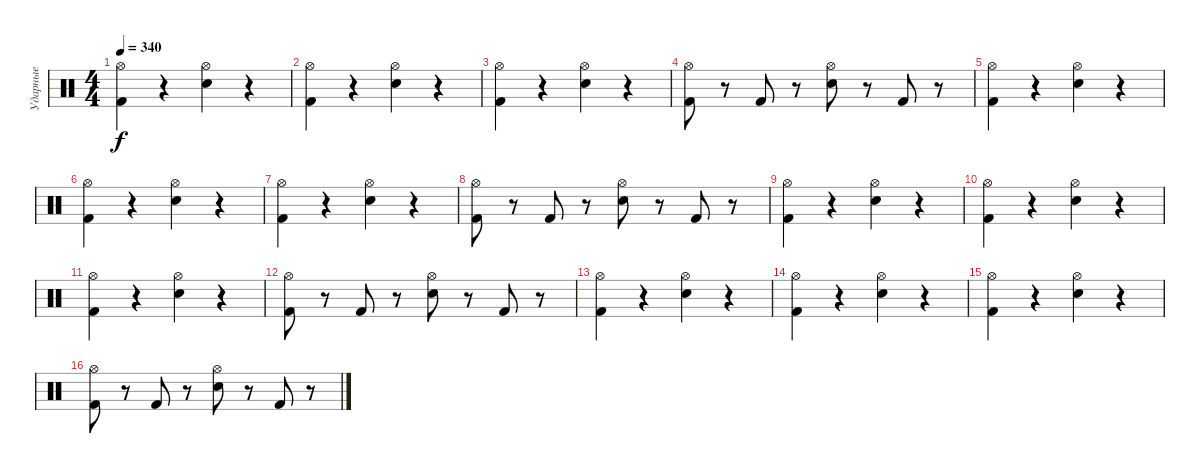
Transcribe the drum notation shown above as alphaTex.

\track ("Ударные" "Ударные") {instrument percussion}
\staff {score}
\articulation defaults
\ts (4 4)
\tempo 340
\clef neutral
\ks c
("Kick (hit) 2" "Hi-Hat (open)").4{dy f} r.4 ("Electric Snare (hit)" "Hi-Hat (open)").4 r.4 |
("Kick (hit) 2" "Hi-Hat (open)").4 r.4 ("Electric Snare (hit)" "Hi-Hat (open)").4 r.4 |
("Kick (hit) 2" "Hi-Hat (open)").4 r.4 ("Electric Snare (hit)" "Hi-Hat (open)").4 r.4 |
("Kick (hit) 2" "Hi-Hat (open)").8 r.8 "Kick (hit) 2".8 r.8 ("Electric Snare (hit)" "Hi-Hat (open)").8 r.8 "Kick (hit) 2".8 r.8 |
("Kick (hit) 2" "Hi-Hat (open)").4 r.4 ("Electric Snare (hit)" "Hi-Hat (open)").4 r.4 |
("Kick (hit) 2" "Hi-Hat (open)").4 r.4 ("Electric Snare (hit)" "Hi-Hat (open)").4 r.4 |
("Kick (hit) 2" "Hi-Hat (open)").4 r.4 ("Electric Snare (hit)" "Hi-Hat (open)").4 r.4 |
("Kick (hit) 2" "Hi-Hat (open)").8 r.8 "Kick (hit) 2".8 r.8 ("Electric Snare (hit)" "Hi-Hat (open)").8 r.8 "Kick (hit) 2".8 r.8 |
("Kick (hit) 2" "Hi-Hat (open)").4 r.4 ("Electric Snare (hit)" "Hi-Hat (open)").4 r.4 |
("Kick (hit) 2" "Hi-Hat (open)").4 r.4 ("Electric Snare (hit)" "Hi-Hat (open)").4 r.4 |
("Kick (hit) 2" "Hi-Hat (open)").4 r.4 ("Electric Snare (hit)" "Hi-Hat (open)").4 r.4 |
("Kick (hit) 2" "Hi-Hat (open)").8 r.8 "Kick (hit) 2".8 r.8 ("Electric Snare (hit)" "Hi-Hat (open)").8 r.8 "Kick (hit) 2".8 r.8 |
("Kick (hit) 2" "Hi-Hat (open)").4 r.4 ("Electric Snare (hit)" "Hi-Hat (open)").4 r.4 |
("Kick (hit) 2" "Hi-Hat (open)").4 r.4 ("Electric Snare (hit)" "Hi-Hat (open)").4 r.4 |
("Kick (hit) 2" "Hi-Hat (open)").4 r.4 ("Electric Snare (hit)" "Hi-Hat (open)").4 r.4 |
("Kick (hit) 2" "Hi-Hat (open)").8 r.8 "Kick (hit) 2".8 r.8 ("Electric Snare (hit)" "Hi-Hat (open)").8 r.8 "Kick (hit) 2".8 r.8
